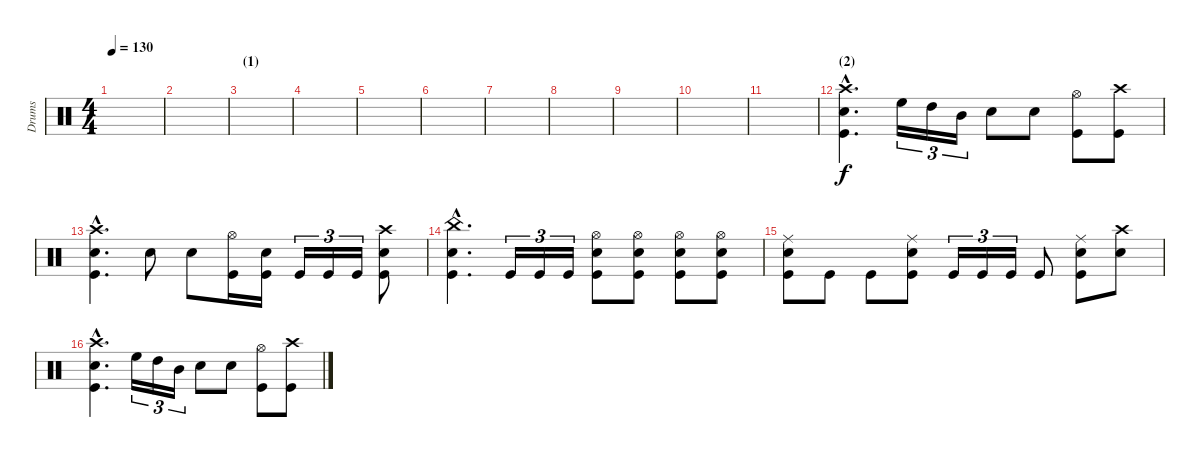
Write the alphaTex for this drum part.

\track ("Drums" "Drums") {instrument percussion}
\staff {score}
\articulation defaults
\ts (4 4)
\tempo 130
\clef neutral
\ks c
|
|
\section ("" "(1)")
|
|
|
|
|
|
|
|
|
\section ("" "(2)")
("Crash high (hit)"{hac} "Snare (hit) 2"{hac} "Kick (hit)"{hac}).4{d} "High Floor Tom (hit)".16{tu (3 2)} "High Tom (hit)".16{tu (3 2)} "Mid Tom (hit)".16{tu (3 2)} "Snare (hit) 2".8 "Snare (hit) 2".8 ("Hi-Hat (open)" "Kick (hit)").8 ("Crash high (hit)" "Kick (hit)").8 |
("Crash high (hit)"{hac} "Snare (hit) 2"{hac} "Kick (hit)"{hac}).4{d} "Snare (hit) 2".8 "Snare (hit) 2".8 ("Hi-Hat (open)" "Kick (hit)").16 ("Snare (hit) 2" "Kick (hit)").16 "Kick (hit)".16{tu (3 2)} "Kick (hit)".16{tu (3 2)} "Kick (hit)".16{tu (3 2)} ("Crash high (hit)" "Snare (hit) 2" "Kick (hit)").8 |
("China (hit)"{hac} "Snare (hit) 2"{hac} "Kick (hit)"{hac}).4{d} "Kick (hit)".16{tu (3 2)} "Kick (hit)".16{tu (3 2)} "Kick (hit)".16{tu (3 2)} ("Hi-Hat (open)" "Snare (hit) 2" "Kick (hit)").8 ("Hi-Hat (open)" "Snare (hit) 2" "Kick (hit)").8 ("Hi-Hat (open)" "Snare (hit) 2" "Kick (hit)").8 ("Hi-Hat (open)" "Snare (hit) 2" "Kick (hit)").8 |
("Ride (middle)" "Snare (hit) 2" "Kick (hit)").8 "Kick (hit)".8 "Kick (hit)".8 ("Ride (middle)" "Snare (hit) 2" "Kick (hit)").8 "Kick (hit)".16{tu (3 2)} "Kick (hit)".16{tu (3 2)} "Kick (hit)".16{tu (3 2)} "Kick (hit)".8 ("Ride (middle)" "Snare (hit) 2" "Kick (hit)").8 ("Crash high (hit)" "Snare (hit) 2").8 |
("Crash high (hit)"{hac} "Snare (hit) 2"{hac} "Kick (hit)"{hac}).4{d} "High Floor Tom (hit)".16{tu (3 2)} "High Tom (hit)".16{tu (3 2)} "Mid Tom (hit)".16{tu (3 2)} "Snare (hit) 2".8 "Snare (hit) 2".8 ("Hi-Hat (open)" "Kick (hit)").8 ("Crash high (hit)" "Kick (hit)").8
